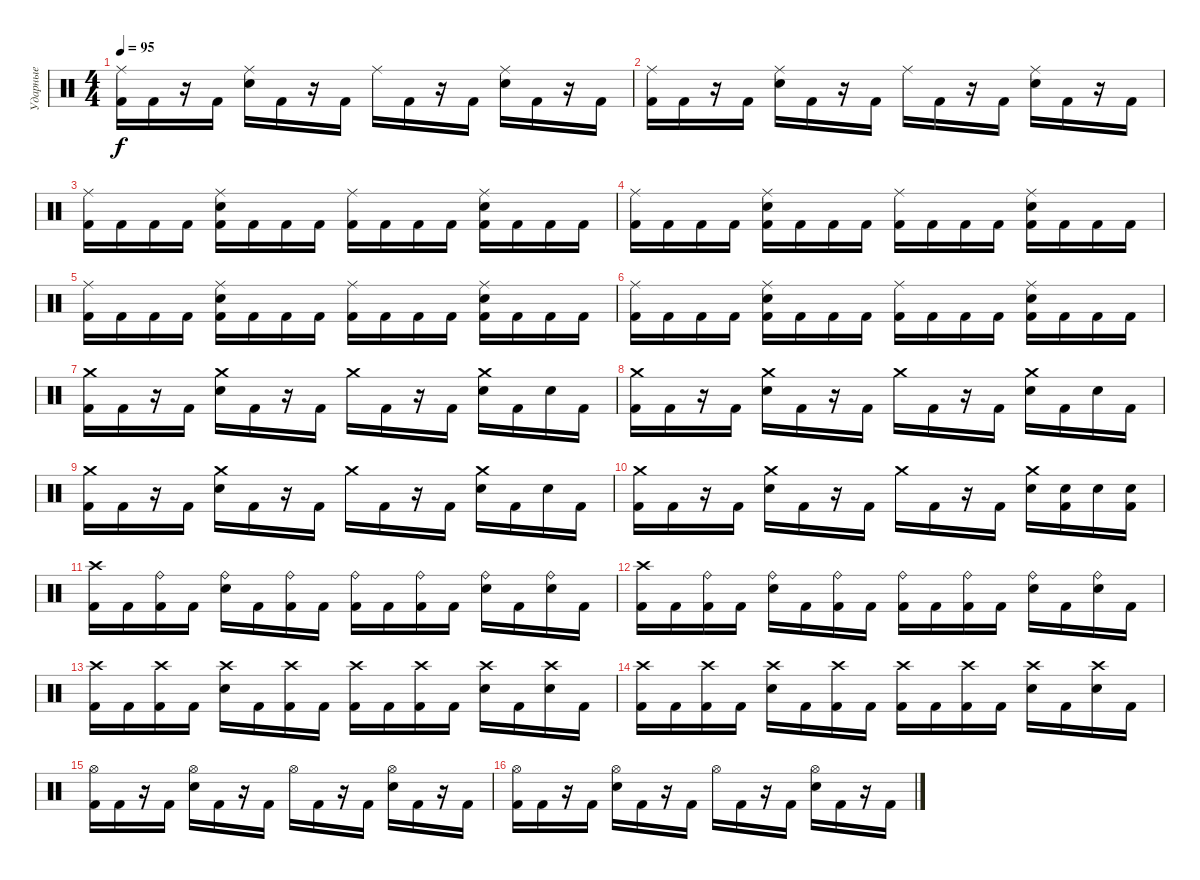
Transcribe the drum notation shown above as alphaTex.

\track ("Ударные" "Ударные") {instrument percussion}
\staff {score}
\articulation defaults
\ts (4 4)
\tempo 95
\clef neutral
\ks c
("Ride (middle)" "Kick (hit) 2").16{dy f} "Kick (hit) 2".16 r.16 "Kick (hit) 2".16 ("Ride (middle)" "Electric Snare (hit)").16 "Kick (hit) 2".16 r.16 "Kick (hit) 2".16 "Ride (middle)".16 "Kick (hit) 2".16 r.16 "Kick (hit) 2".16 ("Ride (middle)" "Electric Snare (hit)").16 "Kick (hit) 2".16 r.16 "Kick (hit) 2".16 |
("Ride (middle)" "Kick (hit) 2").16 "Kick (hit) 2".16 r.16 "Kick (hit) 2".16 ("Ride (middle)" "Electric Snare (hit)").16 "Kick (hit) 2".16 r.16 "Kick (hit) 2".16 "Ride (middle)".16 "Kick (hit) 2".16 r.16 "Kick (hit) 2".16 ("Ride (middle)" "Electric Snare (hit)").16 "Kick (hit) 2".16 r.16 "Kick (hit) 2".16 |
("Ride (middle)" "Kick (hit) 2").16 "Kick (hit) 2".16 "Kick (hit) 2".16 "Kick (hit) 2".16 ("Ride (middle)" "Electric Snare (hit)" "Kick (hit) 2").16 "Kick (hit) 2".16 "Kick (hit) 2".16 "Kick (hit) 2".16 ("Ride (middle)" "Kick (hit) 2").16 "Kick (hit) 2".16 "Kick (hit) 2".16 "Kick (hit) 2".16 ("Ride (middle)" "Electric Snare (hit)" "Kick (hit) 2").16 "Kick (hit) 2".16 "Kick (hit) 2".16 "Kick (hit) 2".16 |
("Ride (middle)" "Kick (hit) 2").16 "Kick (hit) 2".16 "Kick (hit) 2".16 "Kick (hit) 2".16 ("Ride (middle)" "Electric Snare (hit)" "Kick (hit) 2").16 "Kick (hit) 2".16 "Kick (hit) 2".16 "Kick (hit) 2".16 ("Ride (middle)" "Kick (hit) 2").16 "Kick (hit) 2".16 "Kick (hit) 2".16 "Kick (hit) 2".16 ("Ride (middle)" "Electric Snare (hit)" "Kick (hit) 2").16 "Kick (hit) 2".16 "Kick (hit) 2".16 "Kick (hit) 2".16 |
("Ride (middle)" "Kick (hit) 2").16 "Kick (hit) 2".16 "Kick (hit) 2".16 "Kick (hit) 2".16 ("Ride (middle)" "Electric Snare (hit)" "Kick (hit) 2").16 "Kick (hit) 2".16 "Kick (hit) 2".16 "Kick (hit) 2".16 ("Ride (middle)" "Kick (hit) 2").16 "Kick (hit) 2".16 "Kick (hit) 2".16 "Kick (hit) 2".16 ("Ride (middle)" "Electric Snare (hit)" "Kick (hit) 2").16 "Kick (hit) 2".16 "Kick (hit) 2".16 "Kick (hit) 2".16 |
("Ride (middle)" "Kick (hit) 2").16 "Kick (hit) 2".16 "Kick (hit) 2".16 "Kick (hit) 2".16 ("Ride (middle)" "Electric Snare (hit)" "Kick (hit) 2").16 "Kick (hit) 2".16 "Kick (hit) 2".16 "Kick (hit) 2".16 ("Ride (middle)" "Kick (hit) 2").16 "Kick (hit) 2".16 "Kick (hit) 2".16 "Kick (hit) 2".16 ("Ride (middle)" "Electric Snare (hit)" "Kick (hit) 2").16 "Kick (hit) 2".16 "Kick (hit) 2".16 "Kick (hit) 2".16 |
("Crash medium (hit)" "Kick (hit) 2").16 "Kick (hit) 2".16 r.16 "Kick (hit) 2".16 ("Crash medium (hit)" "Electric Snare (hit)").16 "Kick (hit) 2".16 r.16 "Kick (hit) 2".16 "Crash medium (hit)".16 "Kick (hit) 2".16 r.16 "Kick (hit) 2".16 ("Crash medium (hit)" "Electric Snare (hit)").16 "Kick (hit) 2".16 "Electric Snare (hit)".16 "Kick (hit) 2".16 |
("Crash medium (hit)" "Kick (hit) 2").16 "Kick (hit) 2".16 r.16 "Kick (hit) 2".16 ("Crash medium (hit)" "Electric Snare (hit)").16 "Kick (hit) 2".16 r.16 "Kick (hit) 2".16 "Crash medium (hit)".16 "Kick (hit) 2".16 r.16 "Kick (hit) 2".16 ("Crash medium (hit)" "Electric Snare (hit)").16 "Kick (hit) 2".16 "Electric Snare (hit)".16 "Kick (hit) 2".16 |
("Crash medium (hit)" "Kick (hit) 2").16 "Kick (hit) 2".16 r.16 "Kick (hit) 2".16 ("Crash medium (hit)" "Electric Snare (hit)").16 "Kick (hit) 2".16 r.16 "Kick (hit) 2".16 "Crash medium (hit)".16 "Kick (hit) 2".16 r.16 "Kick (hit) 2".16 ("Crash medium (hit)" "Electric Snare (hit)").16 "Kick (hit) 2".16 "Electric Snare (hit)".16 "Kick (hit) 2".16 |
("Crash medium (hit)" "Kick (hit) 2").16 "Kick (hit) 2".16 r.16 "Kick (hit) 2".16 ("Crash medium (hit)" "Electric Snare (hit)").16 "Kick (hit) 2".16 r.16 "Kick (hit) 2".16 "Crash medium (hit)".16 "Kick (hit) 2".16 r.16 "Kick (hit) 2".16 ("Crash medium (hit)" "Electric Snare (hit)").16 ("Electric Snare (hit)" "Kick (hit) 2").16 "Electric Snare (hit)".16 ("Electric Snare (hit)" "Kick (hit) 2").16 |
("Crash high (hit)" "Kick (hit) 2").16 "Kick (hit) 2".16 ("Ride (bell)" "Kick (hit) 2").16 "Kick (hit) 2".16 ("Ride (bell)" "Electric Snare (hit)").16 "Kick (hit) 2".16 ("Ride (bell)" "Kick (hit) 2").16 "Kick (hit) 2".16 ("Ride (bell)" "Kick (hit) 2").16 "Kick (hit) 2".16 ("Ride (bell)" "Kick (hit) 2").16 "Kick (hit) 2".16 ("Ride (bell)" "Electric Snare (hit)").16 "Kick (hit) 2".16 ("Ride (bell)" "Electric Snare (hit)").16 "Kick (hit) 2".16 |
("Crash high (hit)" "Kick (hit) 2").16 "Kick (hit) 2".16 ("Ride (bell)" "Kick (hit) 2").16 "Kick (hit) 2".16 ("Ride (bell)" "Electric Snare (hit)").16 "Kick (hit) 2".16 ("Ride (bell)" "Kick (hit) 2").16 "Kick (hit) 2".16 ("Ride (bell)" "Kick (hit) 2").16 "Kick (hit) 2".16 ("Ride (bell)" "Kick (hit) 2").16 "Kick (hit) 2".16 ("Ride (bell)" "Electric Snare (hit)").16 "Kick (hit) 2".16 ("Ride (bell)" "Electric Snare (hit)").16 "Kick (hit) 2".16 |
("Crash high (hit)" "Kick (hit) 2").16 "Kick (hit) 2".16 ("Crash high (hit)" "Kick (hit) 2").16 "Kick (hit) 2".16 ("Crash high (hit)" "Electric Snare (hit)").16 "Kick (hit) 2".16 ("Crash high (hit)" "Kick (hit) 2").16 "Kick (hit) 2".16 ("Crash high (hit)" "Kick (hit) 2").16 "Kick (hit) 2".16 ("Crash high (hit)" "Kick (hit) 2").16 "Kick (hit) 2".16 ("Crash high (hit)" "Electric Snare (hit)").16 "Kick (hit) 2".16 ("Crash high (hit)" "Electric Snare (hit)").16 "Kick (hit) 2".16 |
("Crash high (hit)" "Kick (hit) 2").16 "Kick (hit) 2".16 ("Crash high (hit)" "Kick (hit) 2").16 "Kick (hit) 2".16 ("Crash high (hit)" "Electric Snare (hit)").16 "Kick (hit) 2".16 ("Crash high (hit)" "Kick (hit) 2").16 "Kick (hit) 2".16 ("Crash high (hit)" "Kick (hit) 2").16 "Kick (hit) 2".16 ("Crash high (hit)" "Kick (hit) 2").16 "Kick (hit) 2".16 ("Crash high (hit)" "Electric Snare (hit)").16 "Kick (hit) 2".16 ("Crash high (hit)" "Electric Snare (hit)").16 "Kick (hit) 2".16 |
("Hi-Hat (open)" "Kick (hit) 2").16 "Kick (hit) 2".16 r.16 "Kick (hit) 2".16 ("Hi-Hat (open)" "Electric Snare (hit)").16 "Kick (hit) 2".16 r.16 "Kick (hit) 2".16 "Hi-Hat (open)".16 "Kick (hit) 2".16 r.16 "Kick (hit) 2".16 ("Hi-Hat (open)" "Electric Snare (hit)").16 "Kick (hit) 2".16 r.16 "Kick (hit) 2".16 |
("Hi-Hat (open)" "Kick (hit) 2").16 "Kick (hit) 2".16 r.16 "Kick (hit) 2".16 ("Hi-Hat (open)" "Electric Snare (hit)").16 "Kick (hit) 2".16 r.16 "Kick (hit) 2".16 "Hi-Hat (open)".16 "Kick (hit) 2".16 r.16 "Kick (hit) 2".16 ("Hi-Hat (open)" "Electric Snare (hit)").16 "Kick (hit) 2".16 r.16 "Kick (hit) 2".16
